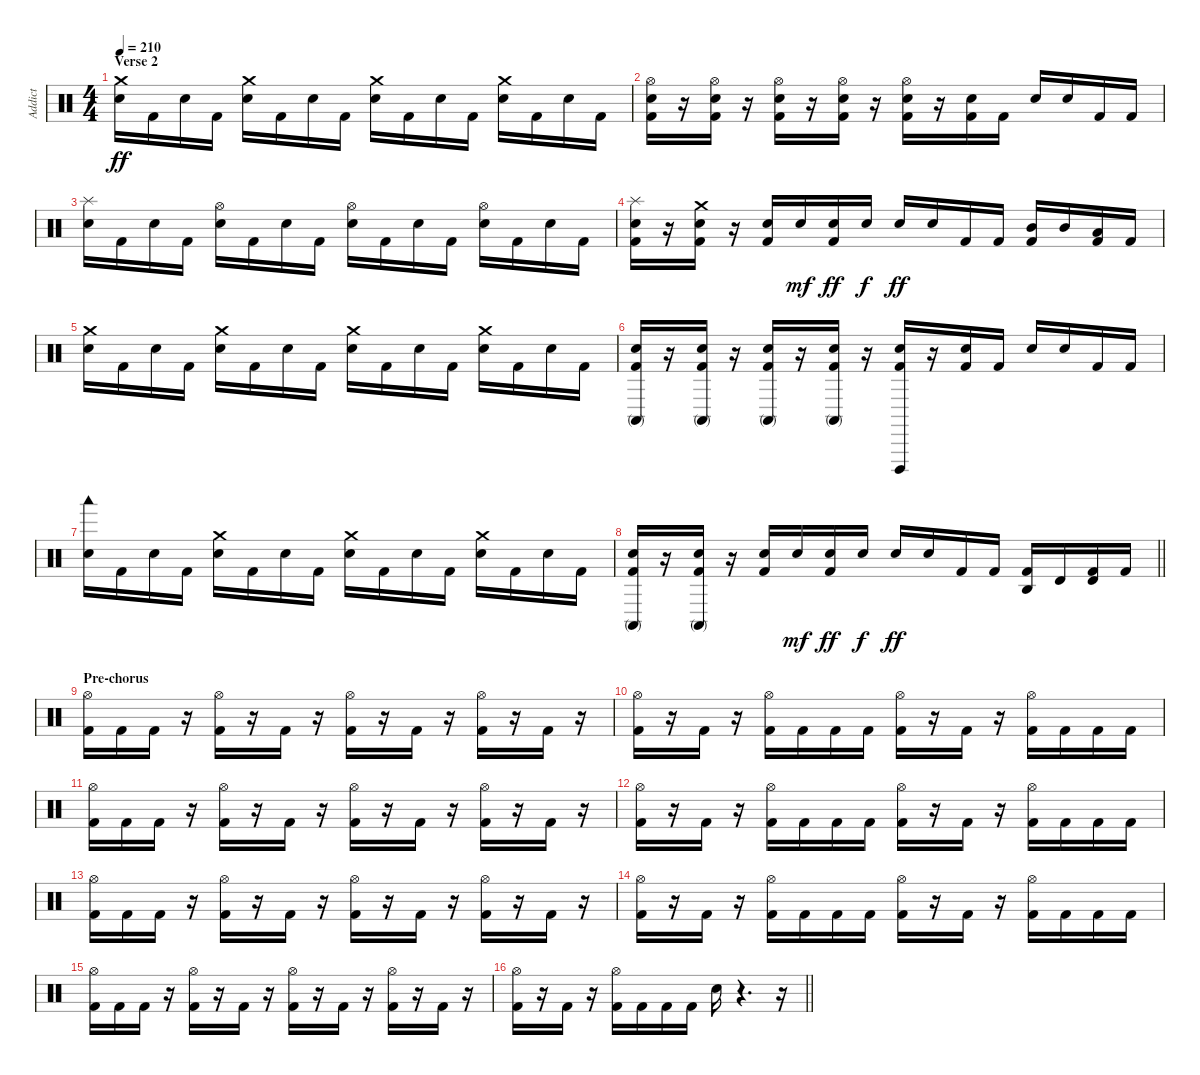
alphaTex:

\track ("Addict" "Addict") {instrument percussion}
\staff {score}
\articulation defaults
\ts (4 4)
\section ("" "Verse 2")
\tempo 210
\clef neutral
\ks c
("Snare (hit) 2" "Crash medium (hit)").16{dy ff} "Kick (hit) 2".16 "Snare (hit) 2".16 "Kick (hit) 2".16 ("Snare (hit) 2" "Crash medium (hit)").16 "Kick (hit) 2".16 "Snare (hit) 2".16 "Kick (hit) 2".16 ("Snare (hit) 2" "Crash medium (hit)").16 "Kick (hit) 2".16 "Snare (hit) 2".16 "Kick (hit) 2".16 ("Snare (hit) 2" "Crash medium (hit)").16 "Kick (hit) 2".16 "Snare (hit) 2".16 "Kick (hit) 2".16 |
("Kick (hit) 2" "Snare (hit) 2" "Hi-Hat (open)").16 r.16 ("Kick (hit) 2" "Snare (hit) 2" "Hi-Hat (open)").16 r.16 ("Kick (hit) 2" "Snare (hit) 2" "Hi-Hat (open)").16 r.16 ("Kick (hit) 2" "Snare (hit) 2" "Hi-Hat (open)").16 r.16 ("Kick (hit) 2" "Snare (hit) 2" "Hi-Hat (open)").16 r.16 ("Kick (hit) 2" "Snare (hit) 2").16 "Kick (hit) 2".16 "Snare (hit) 2".16 "Snare (hit) 2".16 "Kick (hit) 2".16 "Kick (hit) 2".16 |
("Snare (hit) 2" "Splash (hit)").16 "Kick (hit) 2".16 "Snare (hit) 2".16 "Kick (hit) 2".16 ("Snare (hit) 2" "Hi-Hat (open)").16 "Kick (hit) 2".16 "Snare (hit) 2".16 "Kick (hit) 2".16 ("Snare (hit) 2" "Hi-Hat (open)").16 "Kick (hit) 2".16 "Snare (hit) 2".16 "Kick (hit) 2".16 ("Snare (hit) 2" "Hi-Hat (open)").16 "Kick (hit) 2".16 "Snare (hit) 2".16 "Kick (hit) 2".16 |
("Kick (hit) 2" "Snare (hit) 2" "Splash (hit)").16 r.16 ("Kick (hit) 2" "Snare (hit) 2" "Crash medium (hit)").16 r.16 ("Kick (hit) 2" "Snare (hit) 2").16 "Snare (hit) 2".16{dy mf} ("Kick (hit) 2" "Snare (hit) 2").16{dy ff} "Snare (hit) 2".16{dy f} "Snare (hit) 2".16{dy ff} "Snare (hit) 2".16 "Kick (hit) 2".16 "Kick (hit) 2".16 ("Kick (hit) 2" "Mid Tom (hit)").16 "Mid Tom (hit)".16 ("Kick (hit) 2" "Low Tom (hit)").16 "Kick (hit) 2".16 |
("Snare (hit) 2" "Crash medium (hit)").16 "Kick (hit) 2".16 "Snare (hit) 2".16 "Kick (hit) 2".16 ("Snare (hit) 2" "Crash medium (hit)").16 "Kick (hit) 2".16 "Snare (hit) 2".16 "Kick (hit) 2".16 ("Snare (hit) 2" "Crash medium (hit)").16 "Kick (hit) 2".16 "Snare (hit) 2".16 "Kick (hit) 2".16 ("Snare (hit) 2" "Crash medium (hit)").16 "Kick (hit) 2".16 "Snare (hit) 2".16 "Kick (hit) 2".16 |
("Kick (hit) 2" "Snare (hit) 2" "Conga high (mute)").16 r.16 ("Kick (hit) 2" "Snare (hit) 2" "Conga high (mute)").16 r.16 ("Kick (hit) 2" "Snare (hit) 2" "Conga high (mute)").16 r.16 ("Kick (hit) 2" "Snare (hit) 2" "Conga high (mute)").16 r.16 ("Kick (hit) 2" "Snare (hit) 2" "Cuica (open)").16 r.16 ("Kick (hit) 2" "Snare (hit) 2").16 "Kick (hit) 2".16 "Snare (hit) 2".16 "Snare (hit) 2".16 "Kick (hit) 2".16 "Kick (hit) 2".16 |
("Snare (hit) 2" "Woodblock low (hit)").16 "Kick (hit) 2".16 "Snare (hit) 2".16 "Kick (hit) 2".16 ("Snare (hit) 2" "Crash medium (hit)").16 "Kick (hit) 2".16 "Snare (hit) 2".16 "Kick (hit) 2".16 ("Snare (hit) 2" "Crash medium (hit)").16 "Kick (hit) 2".16 "Snare (hit) 2".16 "Kick (hit) 2".16 ("Snare (hit) 2" "Crash medium (hit)").16 "Kick (hit) 2".16 "Snare (hit) 2".16 "Kick (hit) 2".16 |
\barLineRight lightlight
("Kick (hit) 2" "Snare (hit) 2" "Conga high (mute)").16 r.16 ("Kick (hit) 2" "Snare (hit) 2" "Conga high (mute)").16 r.16 ("Kick (hit) 2" "Snare (hit) 2").16 "Snare (hit) 2".16{dy mf} ("Kick (hit) 2" "Snare (hit) 2").16{dy ff} "Snare (hit) 2".16{dy f} "Snare (hit) 2".16{dy ff} "Snare (hit) 2".16 "Kick (hit) 2".16 "Kick (hit) 2".16 ("Kick (hit) 2" "Agogo high (hit)").16 "Timbale high (hit)".16 ("Kick (hit) 2" "Timbale high (hit)").16 "Kick (hit) 2".16 |
\section ("" "Pre-chorus")
("Kick (hit) 2" "Hi-Hat (open)").16 "Kick (hit) 2".16 "Kick (hit) 2".16 r.16 ("Kick (hit) 2" "Hi-Hat (open)").16 r.16 "Kick (hit) 2".16 r.16 ("Kick (hit) 2" "Hi-Hat (open)").16 r.16 "Kick (hit) 2".16 r.16 ("Kick (hit) 2" "Hi-Hat (open)").16 r.16 "Kick (hit) 2".16 r.16 |
("Kick (hit) 2" "Hi-Hat (open)").16 r.16 "Kick (hit) 2".16 r.16 ("Kick (hit) 2" "Hi-Hat (open)").16 "Kick (hit) 2".16 "Kick (hit) 2".16 "Kick (hit) 2".16 ("Kick (hit) 2" "Hi-Hat (open)").16 r.16 "Kick (hit) 2".16 r.16 ("Kick (hit) 2" "Hi-Hat (open)").16 "Kick (hit) 2".16 "Kick (hit) 2".16 "Kick (hit) 2".16 |
("Kick (hit) 2" "Hi-Hat (open)").16 "Kick (hit) 2".16 "Kick (hit) 2".16 r.16 ("Kick (hit) 2" "Hi-Hat (open)").16 r.16 "Kick (hit) 2".16 r.16 ("Kick (hit) 2" "Hi-Hat (open)").16 r.16 "Kick (hit) 2".16 r.16 ("Kick (hit) 2" "Hi-Hat (open)").16 r.16 "Kick (hit) 2".16 r.16 |
("Kick (hit) 2" "Hi-Hat (open)").16 r.16 "Kick (hit) 2".16 r.16 ("Kick (hit) 2" "Hi-Hat (open)").16 "Kick (hit) 2".16 "Kick (hit) 2".16 "Kick (hit) 2".16 ("Kick (hit) 2" "Hi-Hat (open)").16 r.16 "Kick (hit) 2".16 r.16 ("Kick (hit) 2" "Hi-Hat (open)").16 "Kick (hit) 2".16 "Kick (hit) 2".16 "Kick (hit) 2".16 |
("Kick (hit) 2" "Hi-Hat (open)").16 "Kick (hit) 2".16 "Kick (hit) 2".16 r.16 ("Kick (hit) 2" "Hi-Hat (open)").16 r.16 "Kick (hit) 2".16 r.16 ("Kick (hit) 2" "Hi-Hat (open)").16 r.16 "Kick (hit) 2".16 r.16 ("Kick (hit) 2" "Hi-Hat (open)").16 r.16 "Kick (hit) 2".16 r.16 |
("Kick (hit) 2" "Hi-Hat (open)").16 r.16 "Kick (hit) 2".16 r.16 ("Kick (hit) 2" "Hi-Hat (open)").16 "Kick (hit) 2".16 "Kick (hit) 2".16 "Kick (hit) 2".16 ("Kick (hit) 2" "Hi-Hat (open)").16 r.16 "Kick (hit) 2".16 r.16 ("Kick (hit) 2" "Hi-Hat (open)").16 "Kick (hit) 2".16 "Kick (hit) 2".16 "Kick (hit) 2".16 |
("Kick (hit) 2" "Hi-Hat (open)").16 "Kick (hit) 2".16 "Kick (hit) 2".16 r.16 ("Kick (hit) 2" "Hi-Hat (open)").16 r.16 "Kick (hit) 2".16 r.16 ("Kick (hit) 2" "Hi-Hat (open)").16 r.16 "Kick (hit) 2".16 r.16 ("Kick (hit) 2" "Hi-Hat (open)").16 r.16 "Kick (hit) 2".16 r.16 |
\barLineRight lightlight
("Kick (hit) 2" "Hi-Hat (open)").16 r.16 "Kick (hit) 2".16 r.16 ("Kick (hit) 2" "Hi-Hat (open)").16 "Kick (hit) 2".16 "Kick (hit) 2".16 "Kick (hit) 2".16 "Snare (hit) 2".16 r.4{d} r.16
